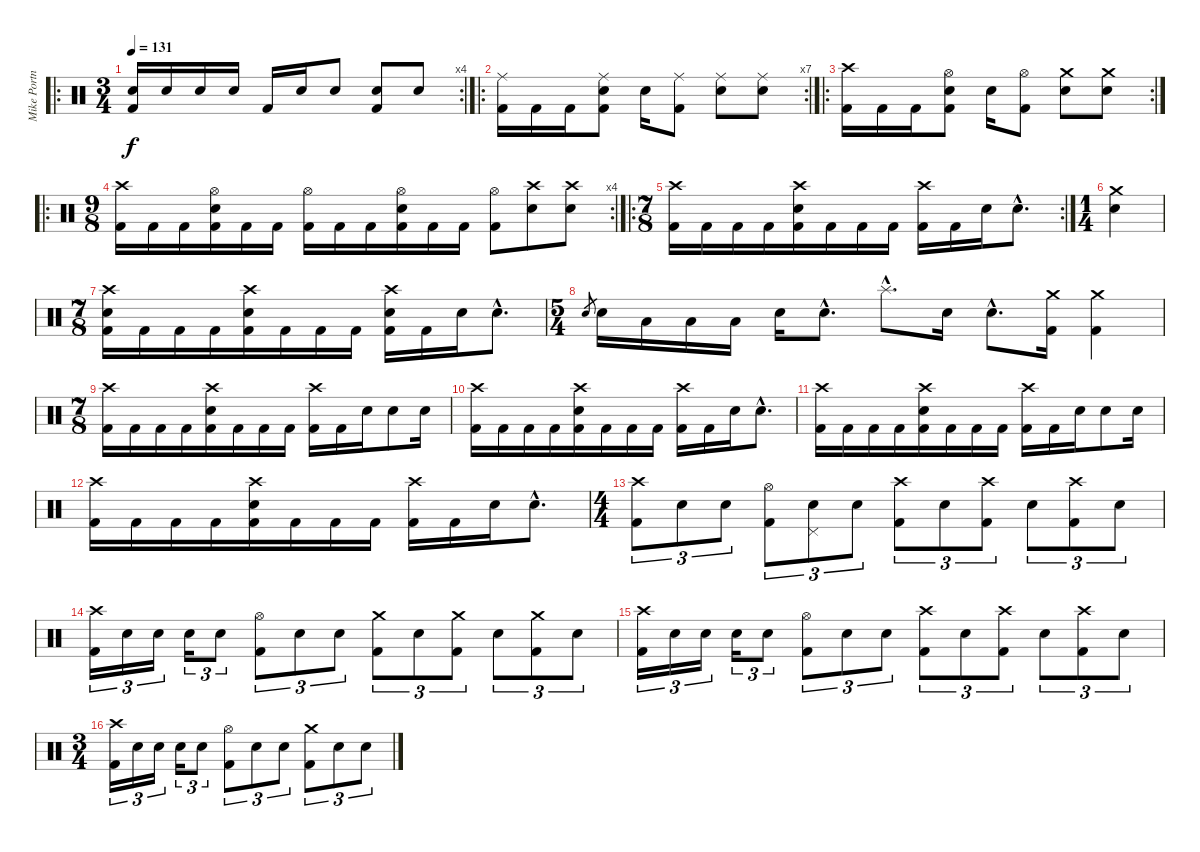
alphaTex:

\track ("Mike Portnoy" "Mike Portn") {instrument percussion}
\staff {score}
\articulation defaults
\ro
\rc 4
\ts (3 4)
\tempo 131
\clef neutral
\ks c
("Snare (hit) 2" "Kick (hit) 2").16{dy f} "Snare (hit) 2".16 "Snare (hit) 2".16 "Snare (hit) 2".16 "Kick (hit) 2".16 "Snare (hit) 2".16 "Snare (hit) 2".8 ("Snare (hit) 2" "Kick (hit) 2").8 "Snare (hit) 2".8 |
\ro
\rc 7
("Ride (middle)" "Kick (hit) 2").16 "Kick (hit) 2".16 "Kick (hit) 2".16 ("Ride (middle)" "Snare (hit) 2" "Kick (hit) 2").8 "Snare (hit) 2".16 ("Ride (middle)" "Kick (hit) 2").8 ("Ride (middle)" "Snare (hit) 2").8 ("Ride (middle)" "Snare (hit) 2").8 |
\ro
\rc 2
("Crash high (hit)" "Kick (hit) 2").16 "Kick (hit) 2".16 "Kick (hit) 2".16 ("Hi-Hat (open)" "Snare (hit) 2" "Kick (hit) 2").8 "Snare (hit) 2".16 ("Hi-Hat (open)" "Kick (hit) 2").8 ("Crash medium (hit)" "Snare (hit) 2").8 ("Crash medium (hit)" "Snare (hit) 2").8 |
\ro
\rc 4
\ts (9 8)
("Crash high (hit)" "Kick (hit) 2").16 "Kick (hit) 2".16 "Kick (hit) 2".16 ("Hi-Hat (open)" "Snare (hit) 2" "Kick (hit) 2").16 "Kick (hit) 2".16 "Kick (hit) 2".16 ("Hi-Hat (open)" "Kick (hit) 2").16 "Kick (hit) 2".16 "Kick (hit) 2".16 ("Hi-Hat (open)" "Snare (hit) 2" "Kick (hit) 2").16 "Kick (hit) 2".16 "Kick (hit) 2".16 ("Hi-Hat (open)" "Kick (hit) 2").8 ("Crash high (hit)" "Snare (hit) 2").8 ("Crash high (hit)" "Snare (hit) 2").8 |
\ro
\rc 2
\ts (7 8)
("Crash high (hit)" "Kick (hit) 2").16 "Kick (hit) 2".16 "Kick (hit) 2".16 "Kick (hit) 2".16 ("Crash high (hit)" "Snare (hit) 2" "Kick (hit) 2").16 "Kick (hit) 2".16 "Kick (hit) 2".16 "Kick (hit) 2".16 ("Crash high (hit)" "Kick (hit) 2").16 "Kick (hit) 2".16 "Snare (hit) 2".16 "Snare (hit) 2"{hac}.8{d} |
\ts (1 4)
("Crash medium (hit)" "Snare (hit) 2").4 |
\ts (7 8)
("Crash high (hit)" "Snare (hit) 2" "Kick (hit) 2").16 "Kick (hit) 2".16 "Kick (hit) 2".16 "Kick (hit) 2".16 ("Crash high (hit)" "Snare (hit) 2" "Kick (hit) 2").16 "Kick (hit) 2".16 "Kick (hit) 2".16 "Kick (hit) 2".16 ("Crash high (hit)" "Snare (hit) 2" "Kick (hit) 2").16 "Kick (hit) 2".16 "Snare (hit) 2".16 "Snare (hit) 2"{hac}.8{d} |
\ts (5 4)
"Snare (hit) 2".8{gr} "Snare (hit) 2".16 "Low Tom (hit)".16 "Low Tom (hit)".16 "Low Tom (hit)".16 "Snare (hit) 2".16 "Snare (hit) 2"{hac}.8{d} "Splash (hit)"{hac}.8{d} "Snare (hit) 2".16 "Snare (hit) 2"{hac}.8{d} ("Crash medium (hit)" "Kick (hit) 2").16 ("Crash medium (hit)" "Kick (hit) 2").4 |
\ts (7 8)
("Crash high (hit)" "Kick (hit) 2").16 "Kick (hit) 2".16 "Kick (hit) 2".16 "Kick (hit) 2".16 ("Crash high (hit)" "Snare (hit) 2" "Kick (hit) 2").16 "Kick (hit) 2".16 "Kick (hit) 2".16 "Kick (hit) 2".16 ("Crash high (hit)" "Kick (hit) 2").16 "Kick (hit) 2".16 "Snare (hit) 2".16 "Snare (hit) 2".8 "Snare (hit) 2".16 |
("Crash high (hit)" "Kick (hit) 2").16 "Kick (hit) 2".16 "Kick (hit) 2".16 "Kick (hit) 2".16 ("Crash high (hit)" "Snare (hit) 2" "Kick (hit) 2").16 "Kick (hit) 2".16 "Kick (hit) 2".16 "Kick (hit) 2".16 ("Crash high (hit)" "Kick (hit) 2").16 "Kick (hit) 2".16 "Snare (hit) 2".16 "Snare (hit) 2"{hac}.8{d} |
("Crash high (hit)" "Kick (hit) 2").16 "Kick (hit) 2".16 "Kick (hit) 2".16 "Kick (hit) 2".16 ("Crash high (hit)" "Snare (hit) 2" "Kick (hit) 2").16 "Kick (hit) 2".16 "Kick (hit) 2".16 "Kick (hit) 2".16 ("Crash high (hit)" "Kick (hit) 2").16 "Kick (hit) 2".16 "Snare (hit) 2".16 "Snare (hit) 2".8 "Snare (hit) 2".16 |
("Crash high (hit)" "Kick (hit) 2").16 "Kick (hit) 2".16 "Kick (hit) 2".16 "Kick (hit) 2".16 ("Crash high (hit)" "Snare (hit) 2" "Kick (hit) 2").16 "Kick (hit) 2".16 "Kick (hit) 2".16 "Kick (hit) 2".16 ("Crash high (hit)" "Kick (hit) 2").16 "Kick (hit) 2".16 "Snare (hit) 2".16 "Snare (hit) 2"{hac}.8{d} |
\ts (4 4)
("Crash high (hit)" "Kick (hit) 2").8{tu (3 2)} "Snare (hit) 2".8{tu (3 2)} "Snare (hit) 2".8{tu (3 2)} ("Hi-Hat (open)" "Kick (hit) 2").8{tu (3 2)} ("Snare (hit) 2" "Pedal Hi-Hat (hit)").8{tu (3 2)} "Snare (hit) 2".8{tu (3 2)} ("Crash high (hit)" "Kick (hit) 2").8{tu (3 2)} "Snare (hit) 2".8{tu (3 2)} ("Crash high (hit)" "Kick (hit) 2").8{tu (3 2)} "Snare (hit) 2".8{tu (3 2)} ("Crash high (hit)" "Kick (hit) 2").8{tu (3 2)} "Snare (hit) 2".8{tu (3 2)} |
("Crash high (hit)" "Kick (hit) 2").16{tu (3 2)} "Snare (hit) 2".16{tu (3 2)} "Snare (hit) 2".16{tu (3 2)} "Snare (hit) 2".16{tu (3 2)} "Snare (hit) 2".8{tu (3 2)} ("Hi-Hat (open)" "Kick (hit) 2").8{tu (3 2)} "Snare (hit) 2".8{tu (3 2)} "Snare (hit) 2".8{tu (3 2)} ("Crash medium (hit)" "Kick (hit) 2").8{tu (3 2)} "Snare (hit) 2".8{tu (3 2)} ("Crash medium (hit)" "Kick (hit) 2").8{tu (3 2)} "Snare (hit) 2".8{tu (3 2)} ("Crash medium (hit)" "Kick (hit) 2").8{tu (3 2)} "Snare (hit) 2".8{tu (3 2)} |
("Crash high (hit)" "Kick (hit) 2").16{tu (3 2)} "Snare (hit) 2".16{tu (3 2)} "Snare (hit) 2".16{tu (3 2)} "Snare (hit) 2".16{tu (3 2)} "Snare (hit) 2".8{tu (3 2)} ("Hi-Hat (open)" "Kick (hit) 2").8{tu (3 2)} "Snare (hit) 2".8{tu (3 2)} "Snare (hit) 2".8{tu (3 2)} ("Crash high (hit)" "Kick (hit) 2").8{tu (3 2)} "Snare (hit) 2".8{tu (3 2)} ("Crash high (hit)" "Kick (hit) 2").8{tu (3 2)} "Snare (hit) 2".8{tu (3 2)} ("Crash high (hit)" "Kick (hit) 2").8{tu (3 2)} "Snare (hit) 2".8{tu (3 2)} |
\ts (3 4)
("Crash high (hit)" "Kick (hit) 2").16{tu (3 2)} "Snare (hit) 2".16{tu (3 2)} "Snare (hit) 2".16{tu (3 2)} "Snare (hit) 2".16{tu (3 2)} "Snare (hit) 2".8{tu (3 2)} ("Hi-Hat (open)" "Kick (hit) 2").8{tu (3 2)} "Snare (hit) 2".8{tu (3 2)} "Snare (hit) 2".8{tu (3 2)} ("Crash medium (hit)" "Kick (hit) 2").8{tu (3 2)} "Snare (hit) 2".8{tu (3 2)} "Snare (hit) 2".8{tu (3 2)}
